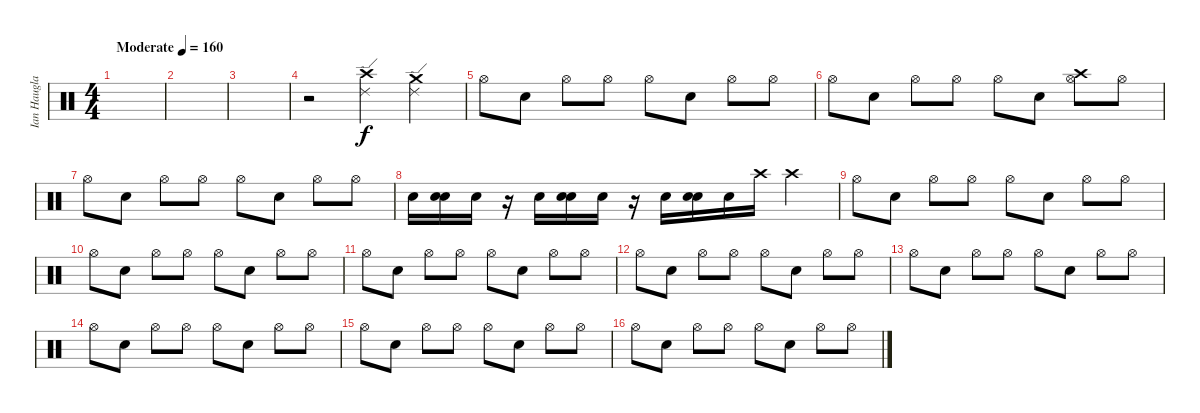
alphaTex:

\track ("Ian Haugland" "Ian Haugla") {instrument percussion}
\staff {score}
\articulation defaults
\ts (4 4)
\tempo (160 "Moderate")
\clef neutral
\ks c
|
|
|
r.2 ("Crash high (hit)" "Ride (edge) 2").4 ("Crash medium (hit)" "Ride (edge) 2").4 |
"Hi-Hat (open)".8 "Electric Snare (hit)".8 "Hi-Hat (open)".8 "Hi-Hat (open)".8 "Hi-Hat (open)".8 "Snare (hit) 2".8 "Hi-Hat (open)".8 "Hi-Hat (open)".8 |
"Hi-Hat (open)".8 "Electric Snare (hit)".8 "Hi-Hat (open)".8 "Hi-Hat (open)".8 "Hi-Hat (open)".8 "Electric Snare (hit)".8 ("Hi-Hat (open)" "Crash high (hit)").8 "Hi-Hat (open)".8 |
"Hi-Hat (open)".8 "Electric Snare (hit)".8 "Hi-Hat (open)".8 "Hi-Hat (open)".8 "Hi-Hat (open)".8 "Snare (hit) 2".8 "Hi-Hat (open)".8 "Hi-Hat (open)".8 |
"Snare (hit) 2".16 ("Electric Snare (hit)" "Snare (hit) 2").16 "Snare (hit) 2".16 r.16 "Snare (hit) 2".16 ("Electric Snare (hit)" "Snare (hit) 2").16 "Snare (hit) 2".16 r.16 "Snare (hit) 2".16 ("Electric Snare (hit)" "Snare (hit) 2").16 "Snare (hit) 2".16 "Crash high (hit)".16 "Crash high (hit)".4 |
"Hi-Hat (open)".8 "Electric Snare (hit)".8 "Hi-Hat (open)".8 "Hi-Hat (open)".8 "Hi-Hat (open)".8 "Snare (hit) 2".8 "Hi-Hat (open)".8 "Hi-Hat (open)".8 |
"Hi-Hat (open)".8 "Electric Snare (hit)".8 "Hi-Hat (open)".8 "Hi-Hat (open)".8 "Hi-Hat (open)".8 "Electric Snare (hit)".8 "Hi-Hat (open)".8 "Hi-Hat (open)".8 |
"Hi-Hat (open)".8 "Electric Snare (hit)".8 "Hi-Hat (open)".8 "Hi-Hat (open)".8 "Hi-Hat (open)".8 "Snare (hit) 2".8 "Hi-Hat (open)".8 "Hi-Hat (open)".8 |
"Hi-Hat (open)".8 "Electric Snare (hit)".8 "Hi-Hat (open)".8 "Hi-Hat (open)".8 "Hi-Hat (open)".8 "Electric Snare (hit)".8 "Hi-Hat (open)".8 "Hi-Hat (open)".8 |
"Hi-Hat (open)".8 "Electric Snare (hit)".8 "Hi-Hat (open)".8 "Hi-Hat (open)".8 "Hi-Hat (open)".8 "Snare (hit) 2".8 "Hi-Hat (open)".8 "Hi-Hat (open)".8 |
"Hi-Hat (open)".8 "Electric Snare (hit)".8 "Hi-Hat (open)".8 "Hi-Hat (open)".8 "Hi-Hat (open)".8 "Electric Snare (hit)".8 "Hi-Hat (open)".8 "Hi-Hat (open)".8 |
"Hi-Hat (open)".8 "Electric Snare (hit)".8 "Hi-Hat (open)".8 "Hi-Hat (open)".8 "Hi-Hat (open)".8 "Snare (hit) 2".8 "Hi-Hat (open)".8 "Hi-Hat (open)".8 |
"Hi-Hat (open)".8 "Electric Snare (hit)".8 "Hi-Hat (open)".8 "Hi-Hat (open)".8 "Hi-Hat (open)".8 "Electric Snare (hit)".8 "Hi-Hat (open)".8 "Hi-Hat (open)".8
